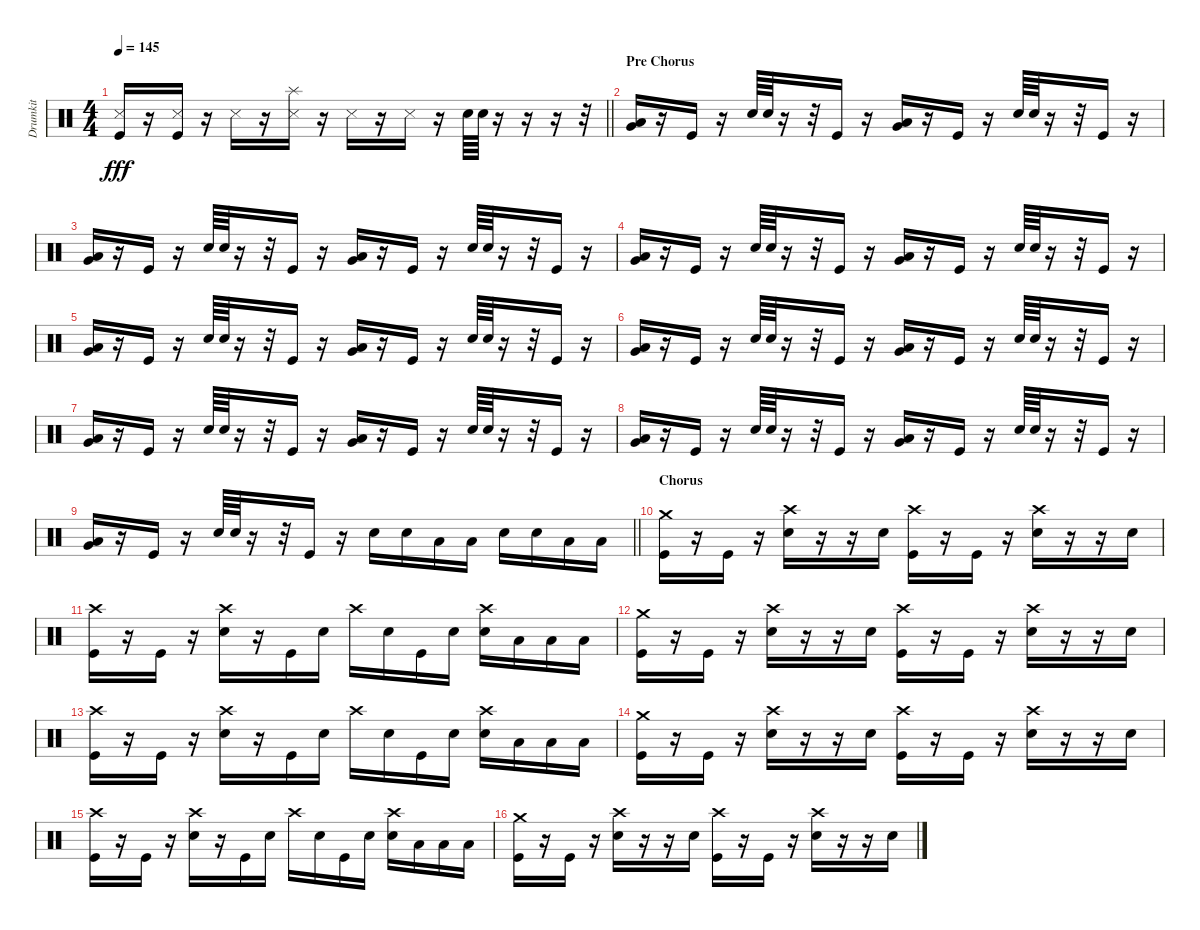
\track ("Drumkit" "Drumkit") {instrument percussion}
\staff {score}
\articulation defaults
\ts (4 4)
\tempo 145
\clef neutral
\barLineRight lightlight
\ks c
("Snare (side stick) 3" "Kick (hit)").16{dy fff} r.16 ("Snare (side stick) 3" "Kick (hit)").16 r.16 "Snare (side stick) 3".16 r.16 ("Splash (hit)" "Snare (side stick) 3").16 r.16 "Snare (side stick) 3".16 r.16 "Snare (side stick) 3".16 r.16 "Snare (hit) 2".64 "Snare (hit) 2".64 r.16 r.16 r.16 r.32 |
\section ("" "Pre Chorus")
("Very Low Tom (hit)" "Low Floor Tom (hit)").16 r.16 "Kick (hit)".16 r.16 "Snare (hit) 2".64 "Snare (hit) 2".64 r.16 r.32 "Kick (hit)".16 r.16 ("Very Low Tom (hit)" "Low Floor Tom (hit)").16 r.16 "Kick (hit)".16 r.16 "Snare (hit) 2".64 "Snare (hit) 2".64 r.16 r.32 "Kick (hit)".16 r.16 |
("Very Low Tom (hit)" "Low Floor Tom (hit)").16 r.16 "Kick (hit)".16 r.16 "Snare (hit) 2".64 "Snare (hit) 2".64 r.16 r.32 "Kick (hit)".16 r.16 ("Very Low Tom (hit)" "Low Floor Tom (hit)").16 r.16 "Kick (hit)".16 r.16 "Snare (hit) 2".64 "Snare (hit) 2".64 r.16 r.32 "Kick (hit)".16 r.16 |
("Very Low Tom (hit)" "Low Floor Tom (hit)").16 r.16 "Kick (hit)".16 r.16 "Snare (hit) 2".64 "Snare (hit) 2".64 r.16 r.32 "Kick (hit)".16 r.16 ("Very Low Tom (hit)" "Low Floor Tom (hit)").16 r.16 "Kick (hit)".16 r.16 "Snare (hit) 2".64 "Snare (hit) 2".64 r.16 r.32 "Kick (hit)".16 r.16 |
("Very Low Tom (hit)" "Low Floor Tom (hit)").16 r.16 "Kick (hit)".16 r.16 "Snare (hit) 2".64 "Snare (hit) 2".64 r.16 r.32 "Kick (hit)".16 r.16 ("Very Low Tom (hit)" "Low Floor Tom (hit)").16 r.16 "Kick (hit)".16 r.16 "Snare (hit) 2".64 "Snare (hit) 2".64 r.16 r.32 "Kick (hit)".16 r.16 |
("Very Low Tom (hit)" "Low Floor Tom (hit)").16 r.16 "Kick (hit)".16 r.16 "Snare (hit) 2".64 "Snare (hit) 2".64 r.16 r.32 "Kick (hit)".16 r.16 ("Very Low Tom (hit)" "Low Floor Tom (hit)").16 r.16 "Kick (hit)".16 r.16 "Snare (hit) 2".64 "Snare (hit) 2".64 r.16 r.32 "Kick (hit)".16 r.16 |
("Very Low Tom (hit)" "Low Floor Tom (hit)").16 r.16 "Kick (hit)".16 r.16 "Snare (hit) 2".64 "Snare (hit) 2".64 r.16 r.32 "Kick (hit)".16 r.16 ("Very Low Tom (hit)" "Low Floor Tom (hit)").16 r.16 "Kick (hit)".16 r.16 "Snare (hit) 2".64 "Snare (hit) 2".64 r.16 r.32 "Kick (hit)".16 r.16 |
("Very Low Tom (hit)" "Low Floor Tom (hit)").16 r.16 "Kick (hit)".16 r.16 "Snare (hit) 2".64 "Snare (hit) 2".64 r.16 r.32 "Kick (hit)".16 r.16 ("Very Low Tom (hit)" "Low Floor Tom (hit)").16 r.16 "Kick (hit)".16 r.16 "Snare (hit) 2".64 "Snare (hit) 2".64 r.16 r.32 "Kick (hit)".16 r.16 |
\barLineRight lightlight
("Very Low Tom (hit)" "Low Floor Tom (hit)").16 r.16 "Kick (hit)".16 r.16 "Snare (hit) 2".64 "Snare (hit) 2".64 r.16 r.32 "Kick (hit)".16 r.16 "Snare (hit) 2".16 "Snare (hit) 2".16 "Low Tom (hit)".16 "Low Tom (hit)".16 "Snare (hit) 2".16 "Snare (hit) 2".16 "Low Floor Tom (hit)".16 "Low Floor Tom (hit)".16 |
\section ("" "Chorus")
("Crash medium (hit)" "Kick (hit)").16 r.16 "Kick (hit)".16 r.16 ("Crash high (hit)" "Snare (hit) 2").16 r.16 r.16 "Snare (hit) 2".16 ("Crash high (hit)" "Kick (hit)").16 r.16 "Kick (hit)".16 r.16 ("Crash high (hit)" "Snare (hit) 2").16 r.16 r.16 "Snare (hit) 2".16 |
("Crash high (hit)" "Kick (hit)").16 r.16 "Kick (hit)".16 r.16 ("Crash high (hit)" "Snare (hit) 2").16 r.16 "Kick (hit)".16 "Snare (hit) 2".16 "Crash high (hit)".16 "Snare (hit) 2".16 "Kick (hit)".16 "Snare (hit) 2".16 ("Crash high (hit)" "Snare (hit) 2").16 "Low Tom (hit)".16 "Low Tom (hit)".16 "Low Floor Tom (hit)".16 |
("Crash medium (hit)" "Kick (hit)").16 r.16 "Kick (hit)".16 r.16 ("Crash high (hit)" "Snare (hit) 2").16 r.16 r.16 "Snare (hit) 2".16 ("Crash high (hit)" "Kick (hit)").16 r.16 "Kick (hit)".16 r.16 ("Crash high (hit)" "Snare (hit) 2").16 r.16 r.16 "Snare (hit) 2".16 |
("Crash high (hit)" "Kick (hit)").16 r.16 "Kick (hit)".16 r.16 ("Crash high (hit)" "Snare (hit) 2").16 r.16 "Kick (hit)".16 "Snare (hit) 2".16 "Crash high (hit)".16 "Snare (hit) 2".16 "Kick (hit)".16 "Snare (hit) 2".16 ("Crash high (hit)" "Snare (hit) 2").16 "Low Tom (hit)".16 "Low Tom (hit)".16 "Low Floor Tom (hit)".16 |
("Crash medium (hit)" "Kick (hit)").16 r.16 "Kick (hit)".16 r.16 ("Crash high (hit)" "Snare (hit) 2").16 r.16 r.16 "Snare (hit) 2".16 ("Crash high (hit)" "Kick (hit)").16 r.16 "Kick (hit)".16 r.16 ("Crash high (hit)" "Snare (hit) 2").16 r.16 r.16 "Snare (hit) 2".16 |
("Crash high (hit)" "Kick (hit)").16 r.16 "Kick (hit)".16 r.16 ("Crash high (hit)" "Snare (hit) 2").16 r.16 "Kick (hit)".16 "Snare (hit) 2".16 "Crash high (hit)".16 "Snare (hit) 2".16 "Kick (hit)".16 "Snare (hit) 2".16 ("Crash high (hit)" "Snare (hit) 2").16 "Low Tom (hit)".16 "Low Tom (hit)".16 "Low Floor Tom (hit)".16 |
("Crash medium (hit)" "Kick (hit)").16 r.16 "Kick (hit)".16 r.16 ("Crash high (hit)" "Snare (hit) 2").16 r.16 r.16 "Snare (hit) 2".16 ("Crash high (hit)" "Kick (hit)").16 r.16 "Kick (hit)".16 r.16 ("Crash high (hit)" "Snare (hit) 2").16 r.16 r.16 "Snare (hit) 2".16
